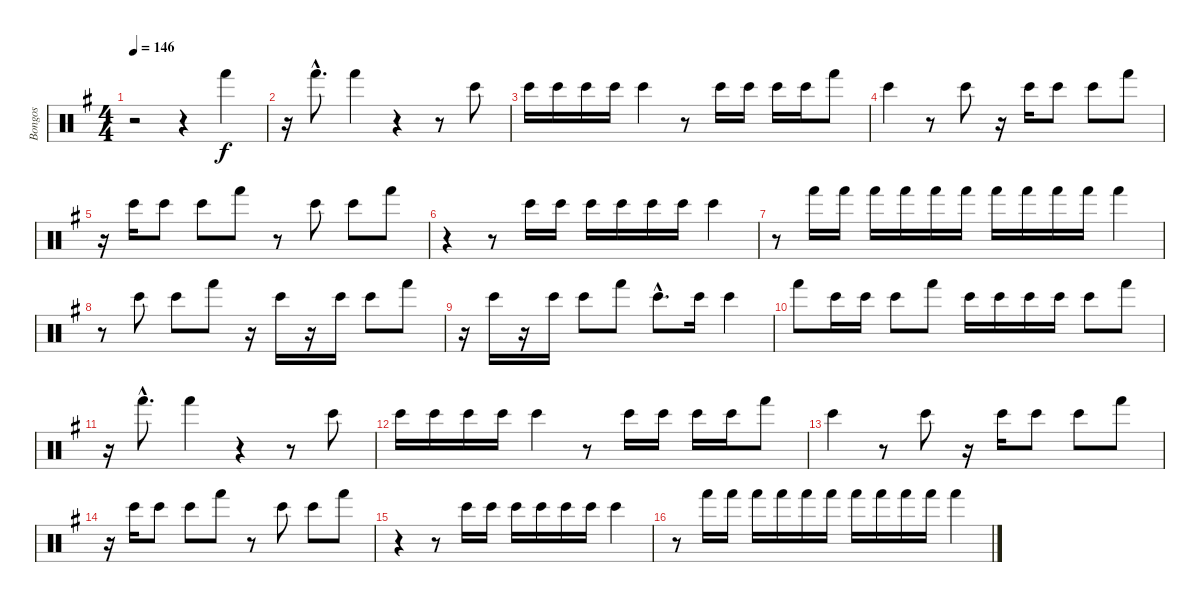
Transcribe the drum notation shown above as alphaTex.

\track ("Bongos" "Bongos") {instrument percussion}
\staff {score}
\articulation defaults
\ts (4 4)
\tempo 146
\clef neutral
\ks g
r.2{dy f} r.4 "Hand (hit)".4 |
r.16 "Hand (hit)"{hac}.8{d} "Hand (hit)".4 r.4 r.8 "Bongo High (hit)".8 |
"Bongo High (hit)".16 "Bongo High (hit)".16 "Bongo High (hit)".16 "Bongo High (hit)".16 "Bongo High (hit)".4 r.8 "Bongo High (hit)".16 "Bongo High (hit)".16 "Bongo High (hit)".16 "Bongo High (hit)".16 "Hand (hit)".8 |
"Bongo High (hit)".4 r.8 "Bongo High (hit)".8 r.16 "Bongo High (hit)".16 "Bongo High (hit)".8 "Bongo High (hit)".8 "Hand (hit)".8 |
r.16 "Bongo High (hit)".16 "Bongo High (hit)".8 "Bongo High (hit)".8 "Hand (hit)".8 r.8 "Bongo High (hit)".8 "Bongo High (hit)".8 "Hand (hit)".8 |
r.4 r.8 "Bongo High (hit)".16 "Bongo High (hit)".16 "Bongo High (hit)".16 "Bongo High (hit)".16 "Bongo High (hit)".16 "Bongo High (hit)".16 "Bongo High (hit)".4 |
r.8 "Hand (hit)".16 "Hand (hit)".16 "Hand (hit)".16 "Hand (hit)".16 "Hand (hit)".16 "Hand (hit)".16 "Hand (hit)".16 "Hand (hit)".16 "Hand (hit)".16 "Hand (hit)".16 "Hand (hit)".4 |
r.8 "Bongo High (hit)".8 "Bongo High (hit)".8 "Hand (hit)".8 r.16 "Bongo High (hit)".16 r.16 "Bongo High (hit)".16 "Bongo High (hit)".8 "Hand (hit)".8 |
r.16 "Bongo High (hit)".16 r.16 "Bongo High (hit)".16 "Bongo High (hit)".8 "Hand (hit)".8 "Bongo High (hit)"{hac}.8{d} "Bongo High (hit)".16 "Bongo High (hit)".4 |
"Hand (hit)".8 "Bongo High (hit)".16 "Bongo High (hit)".16 "Bongo High (hit)".8 "Hand (hit)".8 "Bongo High (hit)".16 "Bongo High (hit)".16 "Bongo High (hit)".16 "Bongo High (hit)".16 "Bongo High (hit)".8 "Hand (hit)".8 |
r.16 "Hand (hit)"{hac}.8{d} "Hand (hit)".4 r.4 r.8 "Bongo High (hit)".8 |
"Bongo High (hit)".16 "Bongo High (hit)".16 "Bongo High (hit)".16 "Bongo High (hit)".16 "Bongo High (hit)".4 r.8 "Bongo High (hit)".16 "Bongo High (hit)".16 "Bongo High (hit)".16 "Bongo High (hit)".16 "Hand (hit)".8 |
"Bongo High (hit)".4 r.8 "Bongo High (hit)".8 r.16 "Bongo High (hit)".16 "Bongo High (hit)".8 "Bongo High (hit)".8 "Hand (hit)".8 |
r.16 "Bongo High (hit)".16 "Bongo High (hit)".8 "Bongo High (hit)".8 "Hand (hit)".8 r.8 "Bongo High (hit)".8 "Bongo High (hit)".8 "Hand (hit)".8 |
r.4 r.8 "Bongo High (hit)".16 "Bongo High (hit)".16 "Bongo High (hit)".16 "Bongo High (hit)".16 "Bongo High (hit)".16 "Bongo High (hit)".16 "Bongo High (hit)".4 |
r.8 "Hand (hit)".16 "Hand (hit)".16 "Hand (hit)".16 "Hand (hit)".16 "Hand (hit)".16 "Hand (hit)".16 "Hand (hit)".16 "Hand (hit)".16 "Hand (hit)".16 "Hand (hit)".16 "Hand (hit)".4
